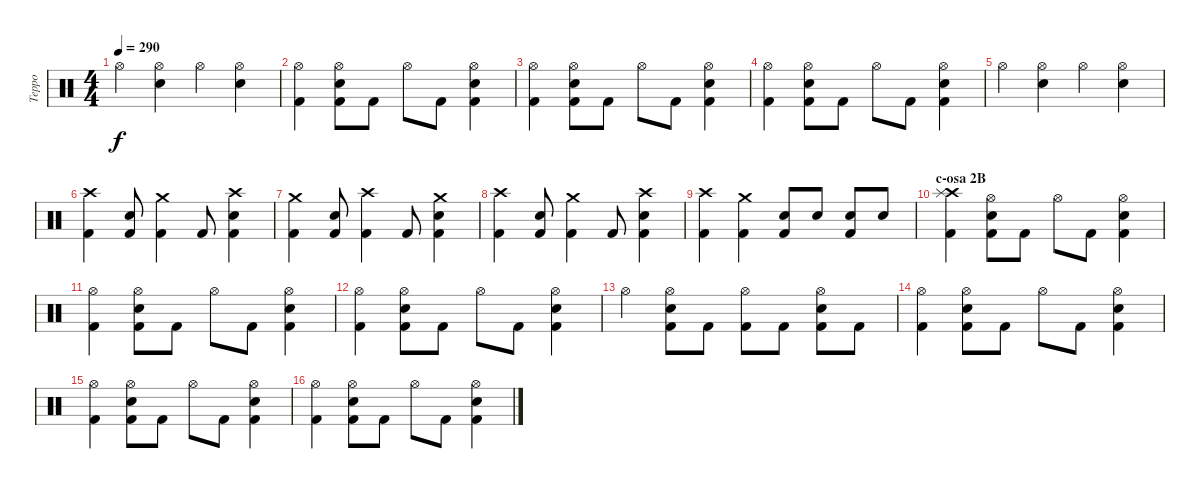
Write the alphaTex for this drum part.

\track ("Teppo" "Teppo") {instrument percussion}
\staff {score}
\articulation defaults
\ts (4 4)
\tempo 290
\clef neutral
\ks c "Hi-Hat (open)".4{dy f}
("Hi-Hat (open)" "Electric Snare (hit)").4 "Hi-Hat (open)".4 ("Hi-Hat (open)" "Electric Snare (hit)").4 |
("Hi-Hat (open)" "Kick (hit) 2").4 ("Hi-Hat (open)" "Electric Snare (hit)" "Kick (hit) 2").8 "Kick (hit) 2".8 "Hi-Hat (open)".8 "Kick (hit) 2".8 ("Hi-Hat (open)" "Electric Snare (hit)" "Kick (hit) 2").4 |
("Hi-Hat (open)" "Kick (hit) 2").4 ("Hi-Hat (open)" "Electric Snare (hit)" "Kick (hit) 2").8 "Kick (hit) 2".8 "Hi-Hat (open)".8 "Kick (hit) 2".8 ("Hi-Hat (open)" "Electric Snare (hit)" "Kick (hit) 2").4 |
("Hi-Hat (open)" "Kick (hit) 2").4 ("Hi-Hat (open)" "Electric Snare (hit)" "Kick (hit) 2").8 "Kick (hit) 2".8 "Hi-Hat (open)".8 "Kick (hit) 2".8 ("Hi-Hat (open)" "Electric Snare (hit)" "Kick (hit) 2").4 |
"Hi-Hat (open)".4 ("Hi-Hat (open)" "Electric Snare (hit)").4 "Hi-Hat (open)".4 ("Hi-Hat (open)" "Electric Snare (hit)").4 |
("Crash high (hit)" "Kick (hit) 2").4 ("Electric Snare (hit)" "Kick (hit) 2").8 ("Crash medium (hit)" "Kick (hit) 2").4 "Kick (hit) 2".8 ("Crash high (hit)" "Electric Snare (hit)" "Kick (hit) 2").4 |
("Crash medium (hit)" "Kick (hit) 2").4 ("Electric Snare (hit)" "Kick (hit) 2").8 ("Crash high (hit)" "Kick (hit) 2").4 "Kick (hit) 2".8 ("Crash medium (hit)" "Electric Snare (hit)" "Kick (hit) 2").4 |
("Crash high (hit)" "Kick (hit) 2").4 ("Electric Snare (hit)" "Kick (hit) 2").8 ("Crash medium (hit)" "Kick (hit) 2").4 "Kick (hit) 2".8 ("Crash high (hit)" "Electric Snare (hit)" "Kick (hit) 2").4 |
("Crash high (hit)" "Kick (hit) 2").4 ("Crash medium (hit)" "Kick (hit) 2").4 ("Electric Snare (hit)" "Kick (hit) 2").8 "Electric Snare (hit)".8 ("Electric Snare (hit)" "Kick (hit) 2").8 "Electric Snare (hit)".8 |
\section ("" "c-osa 2B")
("Crash high (hit)" "Splash (hit)" "Kick (hit) 2").4 ("Hi-Hat (open)" "Electric Snare (hit)" "Kick (hit) 2").8 "Kick (hit) 2".8 "Hi-Hat (open)".8 "Kick (hit) 2".8 ("Hi-Hat (open)" "Electric Snare (hit)" "Kick (hit) 2").4 |
("Hi-Hat (open)" "Kick (hit) 2").4 ("Hi-Hat (open)" "Electric Snare (hit)" "Kick (hit) 2").8 "Kick (hit) 2".8 "Hi-Hat (open)".8 "Kick (hit) 2".8 ("Hi-Hat (open)" "Electric Snare (hit)" "Kick (hit) 2").4 |
("Hi-Hat (open)" "Kick (hit) 2").4 ("Hi-Hat (open)" "Electric Snare (hit)" "Kick (hit) 2").8 "Kick (hit) 2".8 "Hi-Hat (open)".8 "Kick (hit) 2".8 ("Hi-Hat (open)" "Electric Snare (hit)" "Kick (hit) 2").4 |
"Hi-Hat (open)".4 ("Hi-Hat (open)" "Electric Snare (hit)" "Kick (hit) 2").8 "Kick (hit) 2".8 ("Hi-Hat (open)" "Kick (hit) 2").8 "Kick (hit) 2".8 ("Hi-Hat (open)" "Electric Snare (hit)" "Kick (hit) 2").8 "Kick (hit) 2".8 |
("Hi-Hat (open)" "Kick (hit) 2").4 ("Hi-Hat (open)" "Electric Snare (hit)" "Kick (hit) 2").8 "Kick (hit) 2".8 "Hi-Hat (open)".8 "Kick (hit) 2".8 ("Hi-Hat (open)" "Electric Snare (hit)" "Kick (hit) 2").4 |
("Hi-Hat (open)" "Kick (hit) 2").4 ("Hi-Hat (open)" "Electric Snare (hit)" "Kick (hit) 2").8 "Kick (hit) 2".8 "Hi-Hat (open)".8 "Kick (hit) 2".8 ("Hi-Hat (open)" "Electric Snare (hit)" "Kick (hit) 2").4 |
("Hi-Hat (open)" "Kick (hit) 2").4 ("Hi-Hat (open)" "Electric Snare (hit)" "Kick (hit) 2").8 "Kick (hit) 2".8 "Hi-Hat (open)".8 "Kick (hit) 2".8 ("Hi-Hat (open)" "Electric Snare (hit)" "Kick (hit) 2").4
